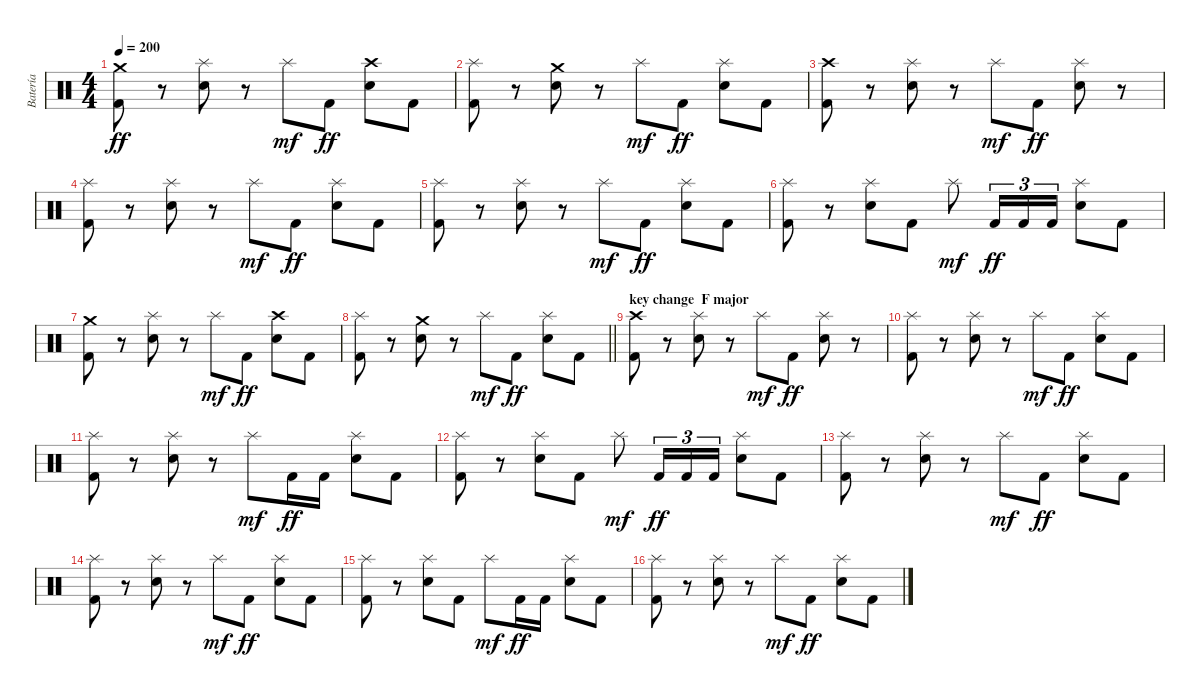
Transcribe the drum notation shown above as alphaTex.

\track ("Batería" "Batería") {instrument percussion}
\staff {score}
\articulation defaults
\ts (4 4)
\tempo 200
\clef neutral
\ks c
("Crash medium (hit)" "Kick (hit) 2").8{dy ff} r.8 ("Splash (hit)" "Electric Snare (hit)").8 r.8 "Splash (hit)".8{dy mf} "Kick (hit) 2".8{dy ff} ("Crash high (hit)" "Electric Snare (hit)").8 "Kick (hit) 2".8 |
("Splash (hit)" "Kick (hit) 2").8 r.8 ("Crash medium (hit)" "Electric Snare (hit)").8 r.8 "Splash (hit)".8{dy mf} "Kick (hit) 2".8{dy ff} ("Splash (hit)" "Electric Snare (hit)").8 "Kick (hit) 2".8 |
("Crash high (hit)" "Kick (hit) 2").8 r.8 ("Splash (hit)" "Electric Snare (hit)").8 r.8 "Splash (hit)".8{dy mf} "Kick (hit) 2".8{dy ff} ("Splash (hit)" "Electric Snare (hit)").8 r.8 |
("Splash (hit)" "Kick (hit) 2").8 r.8 ("Splash (hit)" "Electric Snare (hit)").8 r.8 "Splash (hit)".8{dy mf} "Kick (hit) 2".8{dy ff} ("Splash (hit)" "Electric Snare (hit)").8 "Kick (hit) 2".8 |
("Splash (hit)" "Kick (hit) 2").8 r.8 ("Splash (hit)" "Electric Snare (hit)").8 r.8 "Splash (hit)".8{dy mf} "Kick (hit) 2".8{dy ff} ("Splash (hit)" "Electric Snare (hit)").8 "Kick (hit) 2".8 |
("Splash (hit)" "Kick (hit) 2").8 r.8 ("Splash (hit)" "Electric Snare (hit)").8 "Kick (hit) 2".8 "Splash (hit)".8{dy mf} "Kick (hit) 2".16{tu (3 2) dy ff} "Kick (hit) 2".16{tu (3 2)} "Kick (hit) 2".16{tu (3 2)} ("Splash (hit)" "Electric Snare (hit)").8 "Kick (hit) 2".8 |
("Crash medium (hit)" "Kick (hit) 2").8 r.8 ("Splash (hit)" "Electric Snare (hit)").8 r.8 "Splash (hit)".8{dy mf} "Kick (hit) 2".8{dy ff} ("Crash high (hit)" "Electric Snare (hit)").8 "Kick (hit) 2".8 |
\barLineRight lightlight
("Splash (hit)" "Kick (hit) 2").8 r.8 ("Crash medium (hit)" "Electric Snare (hit)").8 r.8 "Splash (hit)".8{dy mf} "Kick (hit) 2".8{dy ff} ("Splash (hit)" "Electric Snare (hit)").8 "Kick (hit) 2".8 |
\section ("" "key change  F major")
("Crash high (hit)" "Kick (hit) 2").8 r.8 ("Splash (hit)" "Electric Snare (hit)").8 r.8 "Splash (hit)".8{dy mf} "Kick (hit) 2".8{dy ff} ("Splash (hit)" "Electric Snare (hit)").8 r.8 |
("Splash (hit)" "Kick (hit) 2").8 r.8 ("Splash (hit)" "Electric Snare (hit)").8 r.8 "Splash (hit)".8{dy mf} "Kick (hit) 2".8{dy ff} ("Splash (hit)" "Electric Snare (hit)").8 "Kick (hit) 2".8 |
("Splash (hit)" "Kick (hit) 2").8 r.8 ("Splash (hit)" "Electric Snare (hit)").8 r.8 "Splash (hit)".8{dy mf} "Kick (hit) 2".16{dy ff} "Kick (hit) 2".16 ("Splash (hit)" "Electric Snare (hit)").8 "Kick (hit) 2".8 |
("Splash (hit)" "Kick (hit) 2").8 r.8 ("Splash (hit)" "Electric Snare (hit)").8 "Kick (hit) 2".8 "Splash (hit)".8{dy mf} "Kick (hit) 2".16{tu (3 2) dy ff} "Kick (hit) 2".16{tu (3 2)} "Kick (hit) 2".16{tu (3 2)} ("Splash (hit)" "Electric Snare (hit)").8 "Kick (hit) 2".8 |
("Splash (hit)" "Kick (hit) 2").8 r.8 ("Splash (hit)" "Electric Snare (hit)").8 r.8 "Splash (hit)".8{dy mf} "Kick (hit) 2".8{dy ff} ("Splash (hit)" "Electric Snare (hit)").8 "Kick (hit) 2".8 |
("Splash (hit)" "Kick (hit) 2").8 r.8 ("Splash (hit)" "Electric Snare (hit)").8 r.8 "Splash (hit)".8{dy mf} "Kick (hit) 2".8{dy ff} ("Splash (hit)" "Electric Snare (hit)").8 "Kick (hit) 2".8 |
("Splash (hit)" "Kick (hit) 2").8 r.8 ("Splash (hit)" "Electric Snare (hit)").8 "Kick (hit) 2".8 "Splash (hit)".8{dy mf} "Kick (hit) 2".16{dy ff} "Kick (hit) 2".16 ("Splash (hit)" "Electric Snare (hit)").8 "Kick (hit) 2".8 |
("Splash (hit)" "Kick (hit) 2").8 r.8 ("Splash (hit)" "Electric Snare (hit)").8 r.8 "Splash (hit)".8{dy mf} "Kick (hit) 2".8{dy ff} ("Splash (hit)" "Electric Snare (hit)").8 "Kick (hit) 2".8
